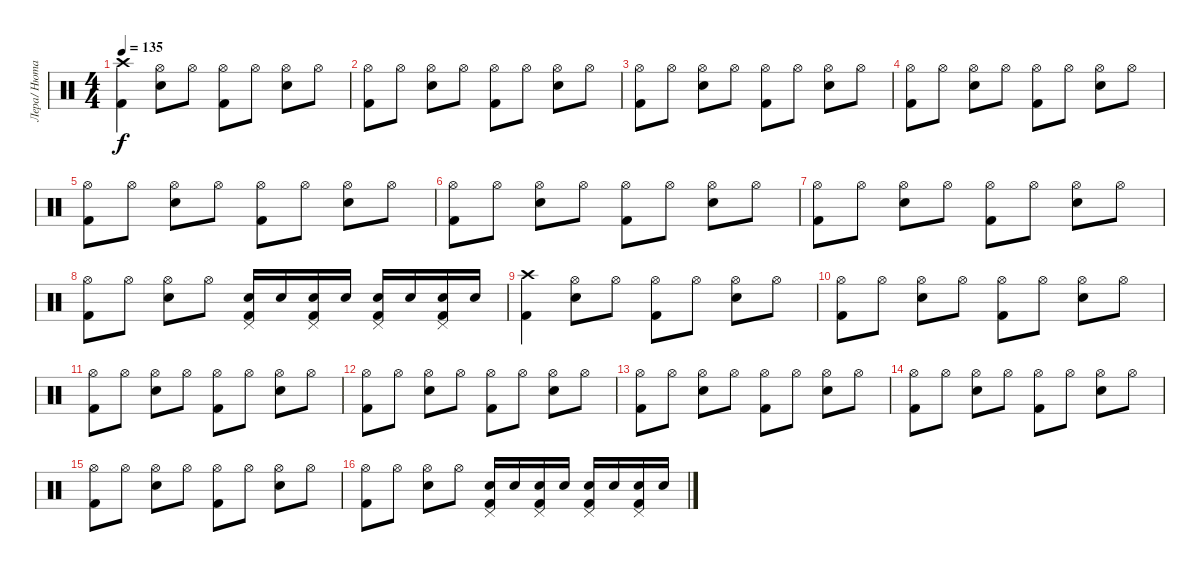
\track ("Лера/ Нюта" "Лера/ Нюта") {instrument percussion}
\staff {score}
\articulation defaults
\ts (4 4)
\tempo 135
\clef neutral
\ks c
("Crash high (hit)" "Kick (hit) 2").4{dy f} ("Hi-Hat (open)" "Electric Snare (hit)").8 "Hi-Hat (open)".8 ("Hi-Hat (open)" "Kick (hit) 2").8 "Hi-Hat (open)".8 ("Hi-Hat (open)" "Electric Snare (hit)").8 "Hi-Hat (open)".8 |
("Hi-Hat (open)" "Kick (hit) 2").8 "Hi-Hat (open)".8 ("Hi-Hat (open)" "Electric Snare (hit)").8 "Hi-Hat (open)".8 ("Hi-Hat (open)" "Kick (hit) 2").8 "Hi-Hat (open)".8 ("Hi-Hat (open)" "Electric Snare (hit)").8 "Hi-Hat (open)".8 |
("Hi-Hat (open)" "Kick (hit) 2").8 "Hi-Hat (open)".8 ("Hi-Hat (open)" "Electric Snare (hit)").8 "Hi-Hat (open)".8 ("Hi-Hat (open)" "Kick (hit) 2").8 "Hi-Hat (open)".8 ("Hi-Hat (open)" "Electric Snare (hit)").8 "Hi-Hat (open)".8 |
("Hi-Hat (open)" "Kick (hit) 2").8 "Hi-Hat (open)".8 ("Hi-Hat (open)" "Electric Snare (hit)").8 "Hi-Hat (open)".8 ("Hi-Hat (open)" "Kick (hit) 2").8 "Hi-Hat (open)".8 ("Hi-Hat (open)" "Electric Snare (hit)").8 "Hi-Hat (open)".8 |
("Hi-Hat (open)" "Kick (hit) 2").8 "Hi-Hat (open)".8 ("Hi-Hat (open)" "Electric Snare (hit)").8 "Hi-Hat (open)".8 ("Hi-Hat (open)" "Kick (hit) 2").8 "Hi-Hat (open)".8 ("Hi-Hat (open)" "Electric Snare (hit)").8 "Hi-Hat (open)".8 |
("Hi-Hat (open)" "Kick (hit) 2").8 "Hi-Hat (open)".8 ("Hi-Hat (open)" "Electric Snare (hit)").8 "Hi-Hat (open)".8 ("Hi-Hat (open)" "Kick (hit) 2").8 "Hi-Hat (open)".8 ("Hi-Hat (open)" "Electric Snare (hit)").8 "Hi-Hat (open)".8 |
("Hi-Hat (open)" "Kick (hit) 2").8 "Hi-Hat (open)".8 ("Hi-Hat (open)" "Electric Snare (hit)").8 "Hi-Hat (open)".8 ("Hi-Hat (open)" "Kick (hit) 2").8 "Hi-Hat (open)".8 ("Hi-Hat (open)" "Electric Snare (hit)").8 "Hi-Hat (open)".8 |
("Hi-Hat (open)" "Kick (hit) 2").8 "Hi-Hat (open)".8 ("Hi-Hat (open)" "Electric Snare (hit)").8 "Hi-Hat (open)".8 ("Electric Snare (hit)" "Kick (hit) 2" "Pedal Hi-Hat (hit)").16 "Electric Snare (hit)".16 ("Electric Snare (hit)" "Kick (hit) 2" "Pedal Hi-Hat (hit)").16 "Electric Snare (hit)".16 ("Electric Snare (hit)" "Kick (hit) 2" "Pedal Hi-Hat (hit)").16 "Electric Snare (hit)".16 ("Electric Snare (hit)" "Kick (hit) 2" "Pedal Hi-Hat (hit)").16 "Electric Snare (hit)".16 |
("Crash high (hit)" "Kick (hit) 2").4 ("Hi-Hat (open)" "Electric Snare (hit)").8 "Hi-Hat (open)".8 ("Hi-Hat (open)" "Kick (hit) 2").8 "Hi-Hat (open)".8 ("Hi-Hat (open)" "Electric Snare (hit)").8 "Hi-Hat (open)".8 |
("Hi-Hat (open)" "Kick (hit) 2").8 "Hi-Hat (open)".8 ("Hi-Hat (open)" "Electric Snare (hit)").8 "Hi-Hat (open)".8 ("Hi-Hat (open)" "Kick (hit) 2").8 "Hi-Hat (open)".8 ("Hi-Hat (open)" "Electric Snare (hit)").8 "Hi-Hat (open)".8 |
("Hi-Hat (open)" "Kick (hit) 2").8 "Hi-Hat (open)".8 ("Hi-Hat (open)" "Electric Snare (hit)").8 "Hi-Hat (open)".8 ("Hi-Hat (open)" "Kick (hit) 2").8 "Hi-Hat (open)".8 ("Hi-Hat (open)" "Electric Snare (hit)").8 "Hi-Hat (open)".8 |
("Hi-Hat (open)" "Kick (hit) 2").8 "Hi-Hat (open)".8 ("Hi-Hat (open)" "Electric Snare (hit)").8 "Hi-Hat (open)".8 ("Hi-Hat (open)" "Kick (hit) 2").8 "Hi-Hat (open)".8 ("Hi-Hat (open)" "Electric Snare (hit)").8 "Hi-Hat (open)".8 |
("Hi-Hat (open)" "Kick (hit) 2").8 "Hi-Hat (open)".8 ("Hi-Hat (open)" "Electric Snare (hit)").8 "Hi-Hat (open)".8 ("Hi-Hat (open)" "Kick (hit) 2").8 "Hi-Hat (open)".8 ("Hi-Hat (open)" "Electric Snare (hit)").8 "Hi-Hat (open)".8 |
("Hi-Hat (open)" "Kick (hit) 2").8 "Hi-Hat (open)".8 ("Hi-Hat (open)" "Electric Snare (hit)").8 "Hi-Hat (open)".8 ("Hi-Hat (open)" "Kick (hit) 2").8 "Hi-Hat (open)".8 ("Hi-Hat (open)" "Electric Snare (hit)").8 "Hi-Hat (open)".8 |
("Hi-Hat (open)" "Kick (hit) 2").8 "Hi-Hat (open)".8 ("Hi-Hat (open)" "Electric Snare (hit)").8 "Hi-Hat (open)".8 ("Hi-Hat (open)" "Kick (hit) 2").8 "Hi-Hat (open)".8 ("Hi-Hat (open)" "Electric Snare (hit)").8 "Hi-Hat (open)".8 |
("Hi-Hat (open)" "Kick (hit) 2").8 "Hi-Hat (open)".8 ("Hi-Hat (open)" "Electric Snare (hit)").8 "Hi-Hat (open)".8 ("Electric Snare (hit)" "Kick (hit) 2" "Pedal Hi-Hat (hit)").16 "Electric Snare (hit)".16 ("Electric Snare (hit)" "Kick (hit) 2" "Pedal Hi-Hat (hit)").16 "Electric Snare (hit)".16 ("Electric Snare (hit)" "Kick (hit) 2" "Pedal Hi-Hat (hit)").16 "Electric Snare (hit)".16 ("Electric Snare (hit)" "Kick (hit) 2" "Pedal Hi-Hat (hit)").16 "Electric Snare (hit)".16
